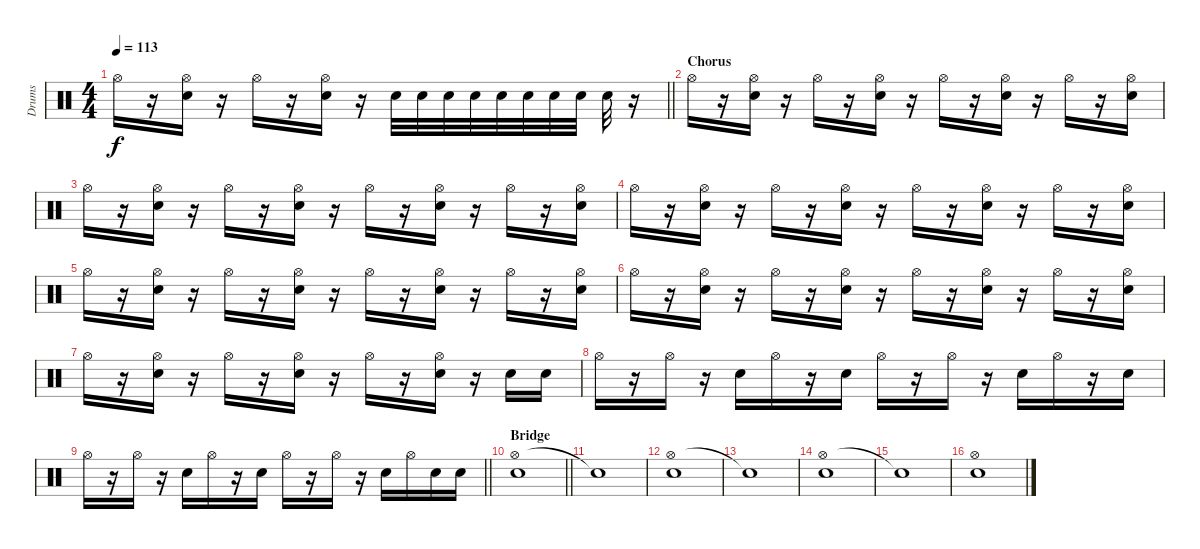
\track ("Drums" "Drums") {instrument percussion}
\staff {score}
\articulation defaults
\ts (4 4)
\tempo 113
\clef neutral
\barLineRight lightlight
\ks c "Hi-Hat (open)".16{dy f}
r.16 ("Hi-Hat (open)" "Electric Snare (hit)").16 r.16 "Hi-Hat (open)".16 r.16 ("Hi-Hat (open)" "Electric Snare (hit)").16 r.16 "Electric Snare (hit)".32 "Electric Snare (hit)".32 "Electric Snare (hit)".32 "Electric Snare (hit)".32 "Electric Snare (hit)".32 "Electric Snare (hit)".32 "Electric Snare (hit)".32 "Electric Snare (hit)".32 "Electric Snare (hit)".32 r.16 |
\section ("" "Chorus")
"Hi-Hat (open)".16 r.16 ("Hi-Hat (open)" "Electric Snare (hit)").16 r.16 "Hi-Hat (open)".16 r.16 ("Hi-Hat (open)" "Electric Snare (hit)").16 r.16 "Hi-Hat (open)".16 r.16 ("Hi-Hat (open)" "Electric Snare (hit)").16 r.16 "Hi-Hat (open)".16 r.16 ("Hi-Hat (open)" "Electric Snare (hit)").16 |
"Hi-Hat (open)".16 r.16 ("Hi-Hat (open)" "Electric Snare (hit)").16 r.16 "Hi-Hat (open)".16 r.16 ("Hi-Hat (open)" "Electric Snare (hit)").16 r.16 "Hi-Hat (open)".16 r.16 ("Hi-Hat (open)" "Electric Snare (hit)").16 r.16 "Hi-Hat (open)".16 r.16 ("Hi-Hat (open)" "Electric Snare (hit)").16 |
"Hi-Hat (open)".16 r.16 ("Hi-Hat (open)" "Electric Snare (hit)").16 r.16 "Hi-Hat (open)".16 r.16 ("Hi-Hat (open)" "Electric Snare (hit)").16 r.16 "Hi-Hat (open)".16 r.16 ("Hi-Hat (open)" "Electric Snare (hit)").16 r.16 "Hi-Hat (open)".16 r.16 ("Hi-Hat (open)" "Electric Snare (hit)").16 |
"Hi-Hat (open)".16 r.16 ("Hi-Hat (open)" "Electric Snare (hit)").16 r.16 "Hi-Hat (open)".16 r.16 ("Hi-Hat (open)" "Electric Snare (hit)").16 r.16 "Hi-Hat (open)".16 r.16 ("Hi-Hat (open)" "Electric Snare (hit)").16 r.16 "Hi-Hat (open)".16 r.16 ("Hi-Hat (open)" "Electric Snare (hit)").16 |
"Hi-Hat (open)".16 r.16 ("Hi-Hat (open)" "Electric Snare (hit)").16 r.16 "Hi-Hat (open)".16 r.16 ("Hi-Hat (open)" "Electric Snare (hit)").16 r.16 "Hi-Hat (open)".16 r.16 ("Hi-Hat (open)" "Electric Snare (hit)").16 r.16 "Hi-Hat (open)".16 r.16 ("Hi-Hat (open)" "Electric Snare (hit)").16 |
"Hi-Hat (open)".16 r.16 ("Hi-Hat (open)" "Electric Snare (hit)").16 r.16 "Hi-Hat (open)".16 r.16 ("Hi-Hat (open)" "Electric Snare (hit)").16 r.16 "Hi-Hat (open)".16 r.16 ("Hi-Hat (open)" "Electric Snare (hit)").16 r.16 "Electric Snare (hit)".16 "Electric Snare (hit)".16 |
"Hi-Hat (open)".16 r.16 "Hi-Hat (open)".16 r.16 "Electric Snare (hit)".16 "Hi-Hat (open)".16 r.16 "Electric Snare (hit)".16 "Hi-Hat (open)".16 r.16 "Hi-Hat (open)".16 r.16 "Electric Snare (hit)".16 "Hi-Hat (open)".16 r.16 "Electric Snare (hit)".16 |
\barLineRight lightlight "Hi-Hat (open)".16
r.16 "Hi-Hat (open)".16 r.16 "Electric Snare (hit)".16 "Hi-Hat (open)".16 r.16 "Electric Snare (hit)".16 "Hi-Hat (open)".16 r.16 "Hi-Hat (open)".16 r.16 "Electric Snare (hit)".16 "Hi-Hat (open)".16 "Electric Snare (hit)".16 "Electric Snare (hit)".16 |
\section ("" "Bridge")
\barLineRight lightlight
("Hi-Hat (open)" "Electric Snare (hit)").1 |
"Snare (hit)"{t}.1 |
("Hi-Hat (open)" "Electric Snare (hit)").1 |
"Snare (hit)"{t}.1 |
("Hi-Hat (open)" "Electric Snare (hit)").1 |
"Snare (hit)"{t}.1 |
("Hi-Hat (open)" "Electric Snare (hit)").1
